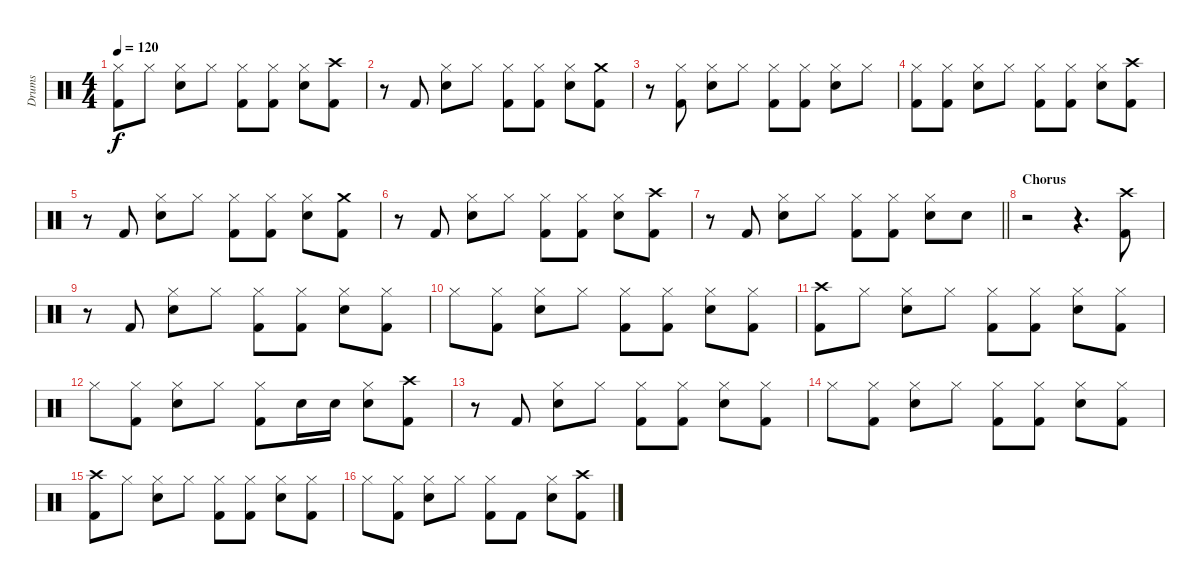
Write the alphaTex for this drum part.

\track ("Drums" "Drums") {instrument percussion}
\staff {score}
\articulation defaults
\ts (4 4)
\tempo 120
\clef neutral
\ks c
("Hi-Hat (closed)" "Kick (hit) 2").8{dy f} "Hi-Hat (closed)".8 ("Hi-Hat (closed)" "Snare (hit) 2").8 "Hi-Hat (closed)".8 ("Hi-Hat (closed)" "Kick (hit) 2").8 ("Hi-Hat (closed)" "Kick (hit) 2").8 ("Hi-Hat (closed)" "Snare (hit) 2").8 ("Crash high (hit)" "Kick (hit) 2").8 |
r.8 "Kick (hit) 2".8 ("Hi-Hat (closed)" "Snare (hit) 2").8 "Hi-Hat (closed)".8 ("Hi-Hat (closed)" "Kick (hit) 2").8 ("Hi-Hat (closed)" "Kick (hit) 2").8 ("Hi-Hat (closed)" "Snare (hit) 2").8 ("Crash medium (hit)" "Kick (hit) 2").8 |
r.8 ("Hi-Hat (closed)" "Kick (hit) 2").8 ("Hi-Hat (closed)" "Snare (hit) 2").8 "Hi-Hat (closed)".8 ("Hi-Hat (closed)" "Kick (hit) 2").8 ("Hi-Hat (closed)" "Kick (hit) 2").8 ("Hi-Hat (closed)" "Snare (hit) 2").8 "Hi-Hat (closed)".8 |
("Hi-Hat (closed)" "Kick (hit) 2").8 ("Hi-Hat (closed)" "Kick (hit) 2").8 ("Hi-Hat (closed)" "Snare (hit) 2").8 "Hi-Hat (closed)".8 ("Hi-Hat (closed)" "Kick (hit) 2").8 ("Hi-Hat (closed)" "Kick (hit) 2").8 ("Hi-Hat (closed)" "Snare (hit) 2").8 ("Crash high (hit)" "Kick (hit) 2").8 |
r.8 "Kick (hit) 2".8 ("Hi-Hat (closed)" "Snare (hit) 2").8 "Hi-Hat (closed)".8 ("Hi-Hat (closed)" "Kick (hit) 2").8 ("Hi-Hat (closed)" "Kick (hit) 2").8 ("Hi-Hat (closed)" "Snare (hit) 2").8 ("Crash medium (hit)" "Kick (hit) 2").8 |
r.8 "Kick (hit) 2".8 ("Hi-Hat (closed)" "Snare (hit) 2").8 "Hi-Hat (closed)".8 ("Hi-Hat (closed)" "Kick (hit) 2").8 ("Hi-Hat (closed)" "Kick (hit) 2").8 ("Hi-Hat (closed)" "Snare (hit) 2").8 ("Crash high (hit)" "Kick (hit) 2").8 |
\barLineRight lightlight
r.8 "Kick (hit) 2".8 ("Hi-Hat (closed)" "Snare (hit) 2").8 "Hi-Hat (closed)".8 ("Hi-Hat (closed)" "Kick (hit) 2").8 ("Hi-Hat (closed)" "Kick (hit) 2").8 ("Hi-Hat (closed)" "Snare (hit) 2").8 "Snare (hit) 2".8 |
\section ("" "Chorus")
r.2 r.4{d} ("Crash high (hit)" "Kick (hit) 2").8 |
r.8 "Kick (hit) 2".8 ("Hi-Hat (closed)" "Snare (hit) 2").8 "Hi-Hat (closed)".8 ("Hi-Hat (closed)" "Kick (hit) 2").8 ("Hi-Hat (closed)" "Kick (hit) 2").8 ("Hi-Hat (closed)" "Snare (hit) 2").8 ("Hi-Hat (closed)" "Kick (hit) 2").8 |
"Hi-Hat (closed)".8 ("Hi-Hat (closed)" "Kick (hit) 2").8 ("Hi-Hat (closed)" "Snare (hit) 2").8 "Hi-Hat (closed)".8 ("Hi-Hat (closed)" "Kick (hit) 2").8 ("Hi-Hat (closed)" "Kick (hit) 2").8 ("Hi-Hat (closed)" "Snare (hit) 2").8 ("Hi-Hat (closed)" "Kick (hit) 2").8 |
("Crash high (hit)" "Kick (hit) 2").8 "Hi-Hat (closed)".8 ("Hi-Hat (closed)" "Snare (hit) 2").8 "Hi-Hat (closed)".8 ("Hi-Hat (closed)" "Kick (hit) 2").8 ("Hi-Hat (closed)" "Kick (hit) 2").8 ("Hi-Hat (closed)" "Snare (hit) 2").8 ("Hi-Hat (closed)" "Kick (hit) 2").8 |
"Hi-Hat (closed)".8 ("Hi-Hat (closed)" "Kick (hit) 2").8 ("Hi-Hat (closed)" "Snare (hit) 2").8 "Hi-Hat (closed)".8 ("Hi-Hat (closed)" "Kick (hit) 2").8 "Snare (hit) 2".16 "Snare (hit) 2".16 ("Hi-Hat (closed)" "Snare (hit) 2").8 ("Crash high (hit)" "Kick (hit) 2").8 |
r.8 "Kick (hit) 2".8 ("Hi-Hat (closed)" "Snare (hit) 2").8 "Hi-Hat (closed)".8 ("Hi-Hat (closed)" "Kick (hit) 2").8 ("Hi-Hat (closed)" "Kick (hit) 2").8 ("Hi-Hat (closed)" "Snare (hit) 2").8 ("Hi-Hat (closed)" "Kick (hit) 2").8 |
"Hi-Hat (closed)".8 ("Hi-Hat (closed)" "Kick (hit) 2").8 ("Hi-Hat (closed)" "Snare (hit) 2").8 "Hi-Hat (closed)".8 ("Hi-Hat (closed)" "Kick (hit) 2").8 ("Hi-Hat (closed)" "Kick (hit) 2").8 ("Hi-Hat (closed)" "Snare (hit) 2").8 ("Hi-Hat (closed)" "Kick (hit) 2").8 |
("Crash high (hit)" "Kick (hit) 2").8 "Hi-Hat (closed)".8 ("Hi-Hat (closed)" "Snare (hit) 2").8 "Hi-Hat (closed)".8 ("Hi-Hat (closed)" "Kick (hit) 2").8 ("Hi-Hat (closed)" "Kick (hit) 2").8 ("Hi-Hat (closed)" "Snare (hit) 2").8 ("Hi-Hat (closed)" "Kick (hit) 2").8 |
"Hi-Hat (closed)".8 ("Hi-Hat (closed)" "Kick (hit) 2").8 ("Hi-Hat (closed)" "Snare (hit) 2").8 "Hi-Hat (closed)".8 ("Hi-Hat (closed)" "Kick (hit) 2").8 "Kick (hit) 2".8 ("Hi-Hat (closed)" "Snare (hit) 2").8 ("Crash high (hit)" "Kick (hit) 2").8
